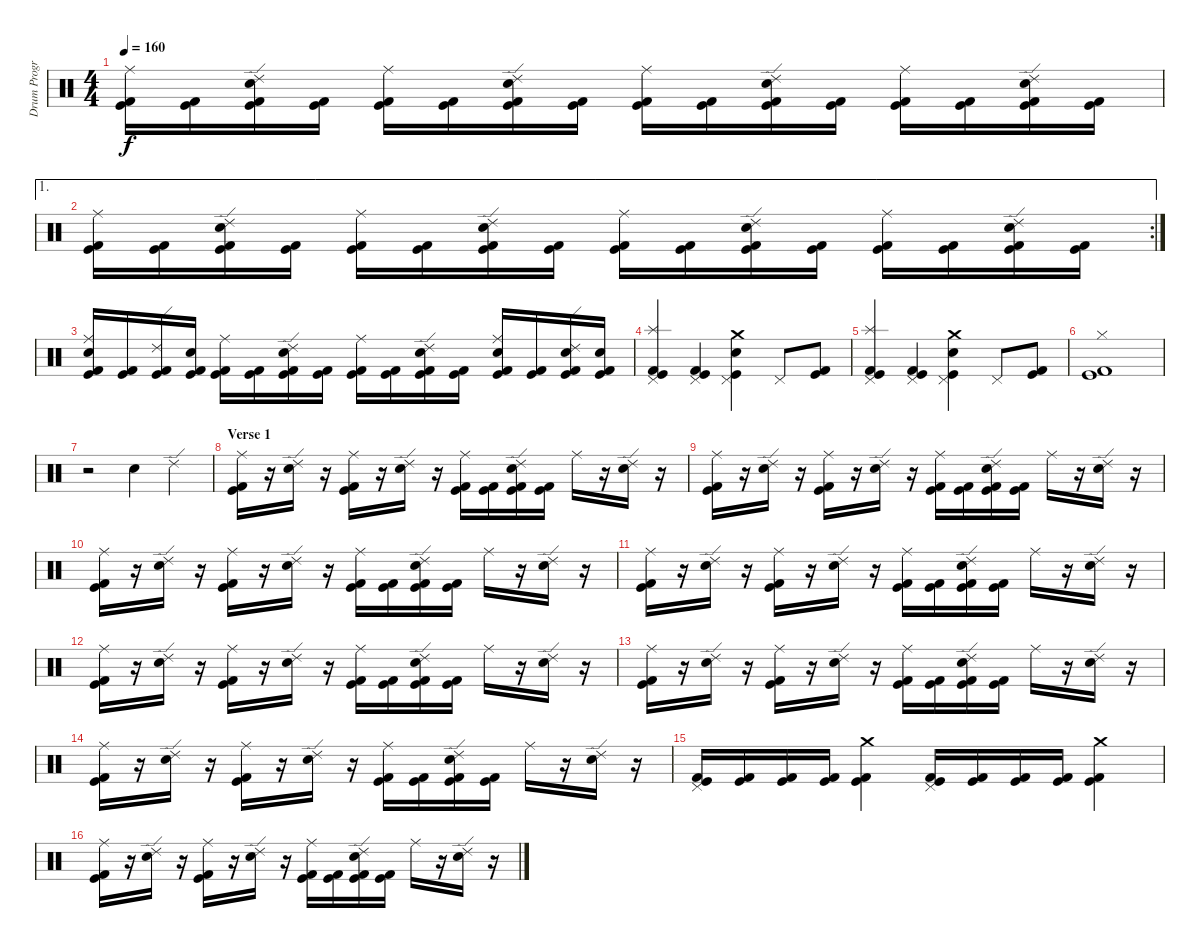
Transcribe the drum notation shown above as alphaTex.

\track ("Drum Program - BG" "Drum Progr") {instrument percussion}
\staff {score}
\articulation defaults
\ts (4 4)
\tempo 160
\clef neutral
\ks c
("Kick (hit)" "Kick (hit) 2" "Ride (middle)").16{dy f} ("Kick (hit)" "Kick (hit) 2").16 ("Kick (hit)" "Kick (hit) 2" "Electric Snare (hit)" "Ride (edge) 2").16 ("Kick (hit)" "Kick (hit) 2").16 ("Kick (hit)" "Kick (hit) 2" "Ride (middle)").16 ("Kick (hit)" "Kick (hit) 2").16 ("Kick (hit)" "Kick (hit) 2" "Electric Snare (hit)" "Ride (edge) 2").16 ("Kick (hit)" "Kick (hit) 2").16 ("Kick (hit)" "Kick (hit) 2" "Ride (middle)").16 ("Kick (hit)" "Kick (hit) 2").16 ("Kick (hit)" "Kick (hit) 2" "Electric Snare (hit)" "Ride (edge) 2").16 ("Kick (hit)" "Kick (hit) 2").16 ("Kick (hit)" "Kick (hit) 2" "Ride (middle)").16 ("Kick (hit)" "Kick (hit) 2").16 ("Kick (hit)" "Kick (hit) 2" "Electric Snare (hit)" "Ride (edge) 2").16 ("Kick (hit)" "Kick (hit) 2").16 |
\ae 1
\rc 2
("Kick (hit)" "Kick (hit) 2" "Ride (middle)").16 ("Kick (hit)" "Kick (hit) 2").16 ("Kick (hit)" "Kick (hit) 2" "Electric Snare (hit)" "Ride (edge) 2").16 ("Kick (hit)" "Kick (hit) 2").16 ("Kick (hit)" "Kick (hit) 2" "Ride (middle)").16 ("Kick (hit)" "Kick (hit) 2").16 ("Kick (hit)" "Kick (hit) 2" "Electric Snare (hit)" "Ride (edge) 2").16 ("Kick (hit)" "Kick (hit) 2").16 ("Kick (hit)" "Kick (hit) 2" "Ride (middle)").16 ("Kick (hit)" "Kick (hit) 2").16 ("Kick (hit)" "Kick (hit) 2" "Electric Snare (hit)" "Ride (edge) 2").16 ("Kick (hit)" "Kick (hit) 2").16 ("Kick (hit)" "Kick (hit) 2" "Ride (middle)").16 ("Kick (hit)" "Kick (hit) 2").16 ("Kick (hit)" "Kick (hit) 2" "Electric Snare (hit)" "Ride (edge) 2").16 ("Kick (hit)" "Kick (hit) 2").16 |
("Kick (hit)" "Kick (hit) 2" "Electric Snare (hit)" "Ride (middle)").16 ("Kick (hit)" "Kick (hit) 2").16 ("Kick (hit)" "Kick (hit) 2" "Ride (edge) 2").16 ("Kick (hit)" "Kick (hit) 2" "Electric Snare (hit)").16 ("Kick (hit)" "Kick (hit) 2" "Ride (middle)").16 ("Kick (hit)" "Kick (hit) 2").16 ("Kick (hit)" "Kick (hit) 2" "Electric Snare (hit)" "Ride (edge) 2").16 ("Kick (hit)" "Kick (hit) 2").16 ("Kick (hit)" "Kick (hit) 2" "Ride (middle)").16 ("Kick (hit)" "Kick (hit) 2").16 ("Kick (hit)" "Kick (hit) 2" "Electric Snare (hit)" "Ride (edge) 2").16 ("Kick (hit)" "Kick (hit) 2").16 ("Kick (hit)" "Kick (hit) 2" "Electric Snare (hit)" "Ride (middle)").16 ("Kick (hit)" "Kick (hit) 2").16 ("Kick (hit)" "Kick (hit) 2" "Electric Snare (hit)" "Ride (edge) 2").16 ("Kick (hit)" "Kick (hit) 2" "Electric Snare (hit)").16 |
("Kick (hit) 2" "Kick (hit)" "Splash (hit)" "Pedal Hi-Hat (hit)").4 ("Kick (hit) 2" "Kick (hit)" "Pedal Hi-Hat (hit)").4 ("Crash medium (hit)" "Kick (hit)" "Electric Snare (hit)" "Pedal Hi-Hat (hit)").4 "Pedal Hi-Hat (hit)".8 ("Kick (hit)" "Kick (hit) 2").8 |
("Kick (hit) 2" "Kick (hit)" "Splash (hit)" "Pedal Hi-Hat (hit)").4 ("Kick (hit) 2" "Kick (hit)" "Pedal Hi-Hat (hit)").4 ("Crash medium (hit)" "Kick (hit)" "Electric Snare (hit)" "Pedal Hi-Hat (hit)").4 "Pedal Hi-Hat (hit)".8 ("Kick (hit)" "Kick (hit) 2").8 |
("Kick (hit) 2" "Kick (hit)" "Hi-Hat (closed)").1 |
r.2 "Electric Snare (hit)".4 "Ride (edge) 2".4 |
\section ("" "Verse 1")
("Kick (hit) 2" "Kick (hit)" "Ride (middle)").16 r.16 ("Electric Snare (hit)" "Ride (edge) 2").16 r.16 ("Kick (hit)" "Kick (hit) 2" "Ride (middle)").16 r.16 ("Electric Snare (hit)" "Ride (edge) 2").16 r.16 ("Kick (hit)" "Kick (hit) 2" "Ride (middle)").16 ("Kick (hit)" "Kick (hit) 2").16 ("Kick (hit)" "Kick (hit) 2" "Electric Snare (hit)" "Ride (edge) 2").16 ("Kick (hit)" "Kick (hit) 2").16 "Ride (middle)".16 r.16 ("Electric Snare (hit)" "Ride (edge) 2").16 r.16 |
("Kick (hit) 2" "Kick (hit)" "Ride (middle)").16 r.16 ("Electric Snare (hit)" "Ride (edge) 2").16 r.16 ("Kick (hit)" "Kick (hit) 2" "Ride (middle)").16 r.16 ("Electric Snare (hit)" "Ride (edge) 2").16 r.16 ("Kick (hit)" "Kick (hit) 2" "Ride (middle)").16 ("Kick (hit)" "Kick (hit) 2").16 ("Kick (hit)" "Kick (hit) 2" "Electric Snare (hit)" "Ride (edge) 2").16 ("Kick (hit)" "Kick (hit) 2").16 "Ride (middle)".16 r.16 ("Electric Snare (hit)" "Ride (edge) 2").16 r.16 |
("Kick (hit) 2" "Kick (hit)" "Ride (middle)").16 r.16 ("Electric Snare (hit)" "Ride (edge) 2").16 r.16 ("Kick (hit)" "Kick (hit) 2" "Ride (middle)").16 r.16 ("Electric Snare (hit)" "Ride (edge) 2").16 r.16 ("Kick (hit)" "Kick (hit) 2" "Ride (middle)").16 ("Kick (hit)" "Kick (hit) 2").16 ("Kick (hit)" "Kick (hit) 2" "Electric Snare (hit)" "Ride (edge) 2").16 ("Kick (hit)" "Kick (hit) 2").16 "Ride (middle)".16 r.16 ("Electric Snare (hit)" "Ride (edge) 2").16 r.16 |
("Kick (hit) 2" "Kick (hit)" "Ride (middle)").16 r.16 ("Electric Snare (hit)" "Ride (edge) 2").16 r.16 ("Kick (hit)" "Kick (hit) 2" "Ride (middle)").16 r.16 ("Electric Snare (hit)" "Ride (edge) 2").16 r.16 ("Kick (hit)" "Kick (hit) 2" "Ride (middle)").16 ("Kick (hit)" "Kick (hit) 2").16 ("Kick (hit)" "Kick (hit) 2" "Electric Snare (hit)" "Ride (edge) 2").16 ("Kick (hit)" "Kick (hit) 2").16 "Ride (middle)".16 r.16 ("Electric Snare (hit)" "Ride (edge) 2").16 r.16 |
("Kick (hit) 2" "Kick (hit)" "Ride (middle)").16 r.16 ("Electric Snare (hit)" "Ride (edge) 2").16 r.16 ("Kick (hit)" "Kick (hit) 2" "Ride (middle)").16 r.16 ("Electric Snare (hit)" "Ride (edge) 2").16 r.16 ("Kick (hit)" "Kick (hit) 2" "Ride (middle)").16 ("Kick (hit)" "Kick (hit) 2").16 ("Kick (hit)" "Kick (hit) 2" "Electric Snare (hit)" "Ride (edge) 2").16 ("Kick (hit)" "Kick (hit) 2").16 "Ride (middle)".16 r.16 ("Electric Snare (hit)" "Ride (edge) 2").16 r.16 |
("Kick (hit) 2" "Kick (hit)" "Ride (middle)").16 r.16 ("Electric Snare (hit)" "Ride (edge) 2").16 r.16 ("Kick (hit)" "Kick (hit) 2" "Ride (middle)").16 r.16 ("Electric Snare (hit)" "Ride (edge) 2").16 r.16 ("Kick (hit)" "Kick (hit) 2" "Ride (middle)").16 ("Kick (hit)" "Kick (hit) 2").16 ("Kick (hit)" "Kick (hit) 2" "Electric Snare (hit)" "Ride (edge) 2").16 ("Kick (hit)" "Kick (hit) 2").16 "Ride (middle)".16 r.16 ("Electric Snare (hit)" "Ride (edge) 2").16 r.16 |
("Kick (hit) 2" "Kick (hit)" "Ride (middle)").16 r.16 ("Electric Snare (hit)" "Ride (edge) 2").16 r.16 ("Kick (hit)" "Kick (hit) 2" "Ride (middle)").16 r.16 ("Electric Snare (hit)" "Ride (edge) 2").16 r.16 ("Kick (hit)" "Kick (hit) 2" "Ride (middle)").16 ("Kick (hit)" "Kick (hit) 2").16 ("Kick (hit)" "Kick (hit) 2" "Electric Snare (hit)" "Ride (edge) 2").16 ("Kick (hit)" "Kick (hit) 2").16 "Ride (middle)".16 r.16 ("Electric Snare (hit)" "Ride (edge) 2").16 r.16 |
("Kick (hit)" "Kick (hit) 2" "Pedal Hi-Hat (hit)").16 ("Kick (hit)" "Kick (hit) 2").16 ("Kick (hit)" "Kick (hit) 2").16 ("Kick (hit)" "Kick (hit) 2").16 ("Kick (hit)" "Kick (hit) 2" "Crash medium (hit)").4 ("Kick (hit)" "Kick (hit) 2" "Pedal Hi-Hat (hit)").16 ("Kick (hit)" "Kick (hit) 2").16 ("Kick (hit)" "Kick (hit) 2").16 ("Kick (hit)" "Kick (hit) 2").16 ("Kick (hit)" "Kick (hit) 2" "Crash medium (hit)").4 |
("Kick (hit) 2" "Kick (hit)" "Ride (middle)").16 r.16 ("Electric Snare (hit)" "Ride (edge) 2").16 r.16 ("Kick (hit)" "Kick (hit) 2" "Ride (middle)").16 r.16 ("Electric Snare (hit)" "Ride (edge) 2").16 r.16 ("Kick (hit)" "Kick (hit) 2" "Ride (middle)").16 ("Kick (hit)" "Kick (hit) 2").16 ("Kick (hit)" "Kick (hit) 2" "Electric Snare (hit)" "Ride (edge) 2").16 ("Kick (hit)" "Kick (hit) 2").16 "Ride (middle)".16 r.16 ("Electric Snare (hit)" "Ride (edge) 2").16 r.16
